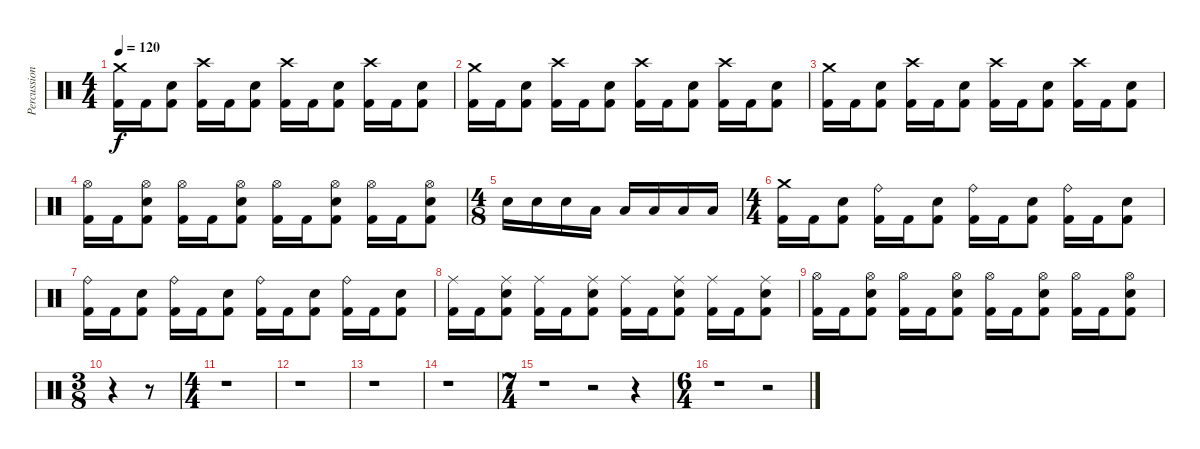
\track ("Percussioni" "Percussion") {instrument percussion}
\staff {score}
\articulation defaults
\ts (4 4)
\tempo 120
\clef neutral
\ks c
("Crash medium (hit)" "Kick (hit) 2").16{dy f} "Kick (hit) 2".16 ("Electric Snare (hit)" "Kick (hit) 2").8 ("Crash high (hit)" "Kick (hit) 2").16 "Kick (hit) 2".16 ("Electric Snare (hit)" "Kick (hit) 2").8 ("Crash high (hit)" "Kick (hit) 2").16 "Kick (hit) 2".16 ("Electric Snare (hit)" "Kick (hit) 2").8 ("Crash high (hit)" "Kick (hit) 2").16 "Kick (hit) 2".16 ("Electric Snare (hit)" "Kick (hit) 2").8 |
("Crash medium (hit)" "Kick (hit) 2").16 "Kick (hit) 2".16 ("Electric Snare (hit)" "Kick (hit) 2").8 ("Crash high (hit)" "Kick (hit) 2").16 "Kick (hit) 2".16 ("Electric Snare (hit)" "Kick (hit) 2").8 ("Crash high (hit)" "Kick (hit) 2").16 "Kick (hit) 2".16 ("Electric Snare (hit)" "Kick (hit) 2").8 ("Crash high (hit)" "Kick (hit) 2").16 "Kick (hit) 2".16 ("Electric Snare (hit)" "Kick (hit) 2").8 |
("Crash medium (hit)" "Kick (hit) 2").16 "Kick (hit) 2".16 ("Electric Snare (hit)" "Kick (hit) 2").8 ("Crash high (hit)" "Kick (hit) 2").16 "Kick (hit) 2".16 ("Electric Snare (hit)" "Kick (hit) 2").8 ("Crash high (hit)" "Kick (hit) 2").16 "Kick (hit) 2".16 ("Electric Snare (hit)" "Kick (hit) 2").8 ("Crash high (hit)" "Kick (hit) 2").16 "Kick (hit) 2".16 ("Electric Snare (hit)" "Kick (hit) 2").8 |
("Hi-Hat (open)" "Kick (hit) 2").16 "Kick (hit) 2".16 ("Hi-Hat (open)" "Electric Snare (hit)" "Kick (hit) 2").8 ("Hi-Hat (open)" "Kick (hit) 2").16 "Kick (hit) 2".16 ("Hi-Hat (open)" "Electric Snare (hit)" "Kick (hit) 2").8 ("Hi-Hat (open)" "Kick (hit) 2").16 "Kick (hit) 2".16 ("Hi-Hat (open)" "Electric Snare (hit)" "Kick (hit) 2").8 ("Hi-Hat (open)" "Kick (hit) 2").16 "Kick (hit) 2".16 ("Hi-Hat (open)" "Electric Snare (hit)" "Kick (hit) 2").8 |
\ts (4 8)
"Electric Snare (hit)".16 "Electric Snare (hit)".16 "Electric Snare (hit)".16 "Low Tom (hit)".16 "Low Tom (hit)".16 "Low Tom (hit)".16 "Low Floor Tom (hit)".16 "Low Floor Tom (hit)".16 |
\ts (4 4)
("Crash medium (hit)" "Kick (hit) 2").16 "Kick (hit) 2".16 ("Electric Snare (hit)" "Kick (hit) 2").8 ("Ride (bell)" "Kick (hit) 2").16 "Kick (hit) 2".16 ("Electric Snare (hit)" "Kick (hit) 2").8 ("Ride (bell)" "Kick (hit) 2").16 "Kick (hit) 2".16 ("Electric Snare (hit)" "Kick (hit) 2").8 ("Ride (bell)" "Kick (hit) 2").16 "Kick (hit) 2".16 ("Electric Snare (hit)" "Kick (hit) 2").8 |
("Ride (bell)" "Kick (hit) 2").16 "Kick (hit) 2".16 ("Electric Snare (hit)" "Kick (hit) 2").8 ("Ride (bell)" "Kick (hit) 2").16 "Kick (hit) 2".16 ("Electric Snare (hit)" "Kick (hit) 2").8 ("Ride (bell)" "Kick (hit) 2").16 "Kick (hit) 2".16 ("Electric Snare (hit)" "Kick (hit) 2").8 ("Ride (bell)" "Kick (hit) 2").16 "Kick (hit) 2".16 ("Electric Snare (hit)" "Kick (hit) 2").8 |
("Ride (middle)" "Kick (hit) 2").16 "Kick (hit) 2".16 ("Ride (middle)" "Electric Snare (hit)" "Kick (hit) 2").8 ("Ride (middle)" "Kick (hit) 2").16 "Kick (hit) 2".16 ("Ride (middle)" "Electric Snare (hit)" "Kick (hit) 2").8 ("Ride (middle)" "Kick (hit) 2").16 "Kick (hit) 2".16 ("Ride (middle)" "Electric Snare (hit)" "Kick (hit) 2").8 ("Ride (middle)" "Kick (hit) 2").16 "Kick (hit) 2".16 ("Ride (middle)" "Electric Snare (hit)" "Kick (hit) 2").8 |
("Hi-Hat (open)" "Kick (hit) 2").16 "Kick (hit) 2".16 ("Hi-Hat (open)" "Electric Snare (hit)" "Kick (hit) 2").8 ("Hi-Hat (open)" "Kick (hit) 2").16 "Kick (hit) 2".16 ("Hi-Hat (open)" "Electric Snare (hit)" "Kick (hit) 2").8 ("Hi-Hat (open)" "Kick (hit) 2").16 "Kick (hit) 2".16 ("Hi-Hat (open)" "Electric Snare (hit)" "Kick (hit) 2").8 ("Hi-Hat (open)" "Kick (hit) 2").16 "Kick (hit) 2".16 ("Hi-Hat (open)" "Electric Snare (hit)" "Kick (hit) 2").8 |
\ts (3 8)
r.4 r.8 |
\ts (4 4)
r.1 |
r.1 |
r.1 |
r.1 |
\ts (7 4)
r.1 r.2 r.4 |
\ts (6 4)
r.1 r.2
